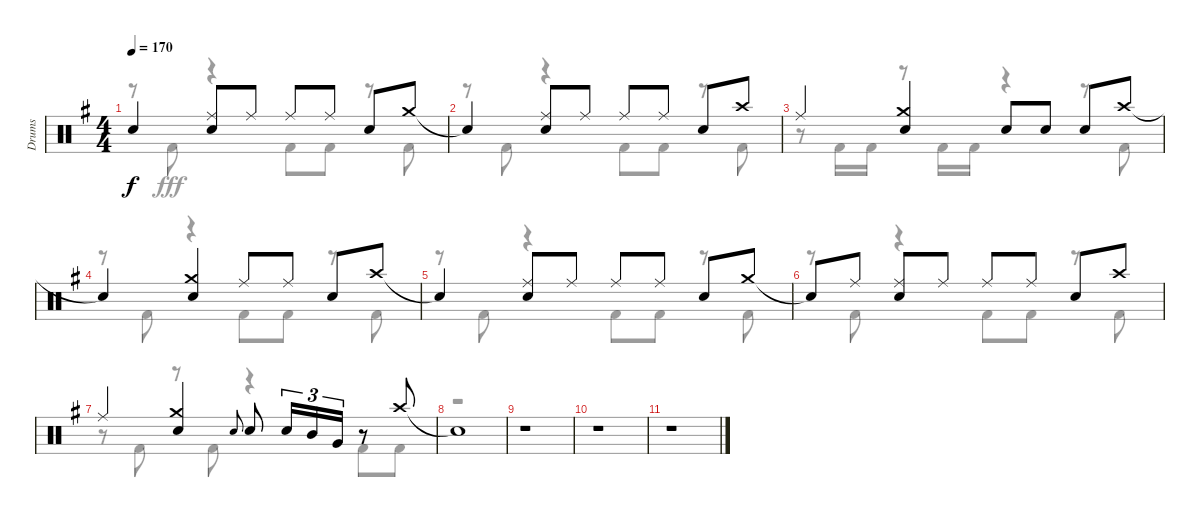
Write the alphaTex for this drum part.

\track ("Drums" "Drums") {instrument percussion}
\staff {score}
\articulation defaults
\voice
\ts (4 4)
\tempo 170
\clef neutral
\ks g "Snare (hit)"{t}.4{dy f}
("Ride (middle)" "Snare (hit) 2").8 "Ride (middle)".8 "Ride (middle)".8 "Ride (middle)".8 "Snare (hit) 2".8 "Crash medium (hit)".8 |
"Snare (hit)"{t}.4 ("Ride (middle)" "Snare (hit) 2").8 "Ride (middle)".8 "Ride (middle)".8 "Ride (middle)".8 "Snare (hit) 2".8 "Crash high (hit)".8 |
"Ride (middle)".4 ("Crash medium (hit)" "Snare (hit) 2").4 "Snare (hit) 2".8 "Snare (hit) 2".8 "Snare (hit) 2".8 "Crash high (hit)".8 |
"Snare (hit)"{t}.4 ("Crash medium (hit)" "Snare (hit) 2").4 "Ride (middle)".8 "Ride (middle)".8 "Snare (hit) 2".8 "Crash high (hit)".8 |
"Snare (hit)"{t}.4 ("Ride (middle)" "Snare (hit) 2").8 "Ride (middle)".8 "Ride (middle)".8 "Ride (middle)".8 "Snare (hit) 2".8 "Crash medium (hit)".8 |
"Snare (hit)"{t}.8 "Ride (middle)".8 ("Ride (middle)" "Snare (hit) 2").8 "Ride (middle)".8 "Ride (middle)".8 "Ride (middle)".8 "Snare (hit) 2".8 "Crash high (hit)".8 |
"Ride (middle)".4 ("Crash medium (hit)" "Snare (hit) 2").4 "Snare (hit) 2".8{gr onbeat} "Snare (hit) 2".8 "Snare (hit) 2".16{tu (3 2)} "Mid Tom (hit)".16{tu (3 2)} "Very Low Tom (hit)".16{tu (3 2)} r.8 "Crash high (hit)".8 |
"Snare (hit)"{t}.1 |
r.1 |
r.1 |
r.1
\voice
\clef neutral
\ottava regular
\simile none
\ks g
r.8{dy fff} "Kick (hit) 2".8 r.4 "Kick (hit) 2".8 "Kick (hit) 2".8 r.8 "Kick (hit) 2".8 |
r.8 "Kick (hit) 2".8 r.4 "Kick (hit) 2".8 "Kick (hit) 2".8 r.8 "Kick (hit) 2".8 |
r.8 "Kick (hit) 2".16 "Kick (hit) 2".16 r.8 "Kick (hit) 2".16 "Kick (hit) 2".16 r.4 r.8 "Kick (hit) 2".8 |
r.8 "Kick (hit) 2".8 r.4 "Kick (hit) 2".8 "Kick (hit) 2".8 r.8 "Kick (hit) 2".8 |
r.8 "Kick (hit) 2".8 r.4 "Kick (hit) 2".8 "Kick (hit) 2".8 r.8 "Kick (hit) 2".8 |
r.8 "Kick (hit) 2".8 r.4 "Kick (hit) 2".8 "Kick (hit) 2".8 r.8 "Kick (hit) 2".8 |
r.8 "Kick (hit) 2".8 r.8 "Kick (hit) 2".8 r.4 "Kick (hit) 2".8 "Kick (hit) 2".8 |
r.1 |
r.1 |
r.1 |
r.1
